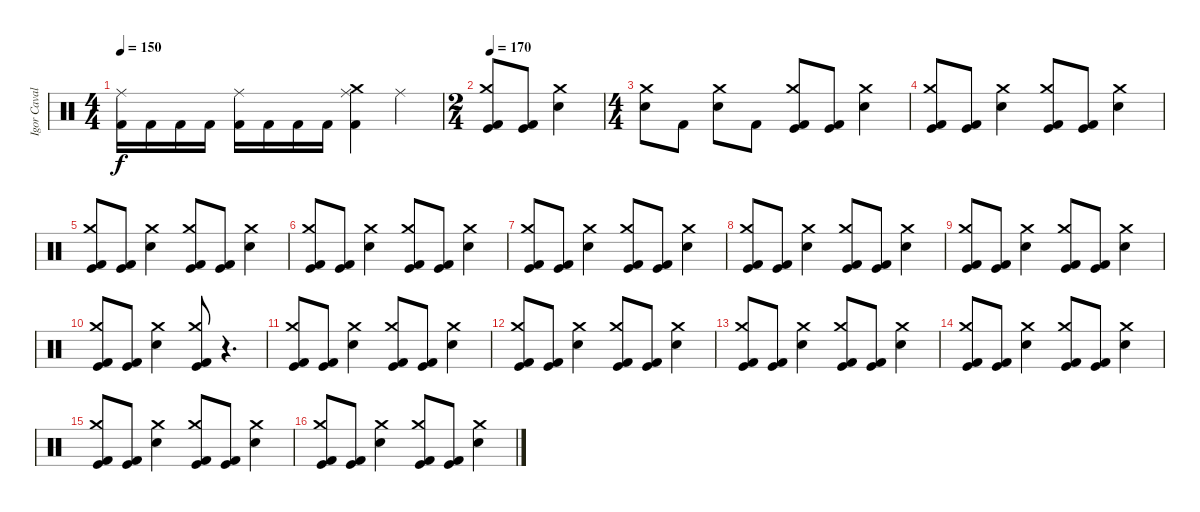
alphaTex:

\track ("Igor Cavalera" "Igor Caval") {instrument percussion}
\staff {score}
\articulation defaults
\ts (4 4)
\tempo 150
\clef neutral
\ks c
("Ride (middle)" "Kick (hit) 2").16{dy f} "Kick (hit) 2".16 "Kick (hit) 2".16 "Kick (hit) 2".16 ("Ride (middle)" "Kick (hit) 2").16 "Kick (hit) 2".16 "Kick (hit) 2".16 "Kick (hit) 2".16 ("Crash medium (hit)" "Ride (middle)" "Kick (hit) 2").4 "Ride (middle)".4 |
\ts (2 4)
\tempo 170
("Crash medium (hit)" "Kick (hit)" "Kick (hit) 2").8 ("Kick (hit)" "Kick (hit) 2").8 ("Crash medium (hit)" "Snare (hit) 2").4 |
\ts (4 4)
("Crash medium (hit)" "Snare (hit) 2").8 "Kick (hit) 2".8 ("Crash medium (hit)" "Snare (hit) 2").8 "Kick (hit) 2".8 ("Crash medium (hit)" "Kick (hit)" "Kick (hit) 2").8 ("Kick (hit)" "Kick (hit) 2").8 ("Crash medium (hit)" "Snare (hit) 2").4 |
("Crash medium (hit)" "Kick (hit)" "Kick (hit) 2").8 ("Kick (hit)" "Kick (hit) 2").8 ("Crash medium (hit)" "Snare (hit) 2").4 ("Crash medium (hit)" "Kick (hit)" "Kick (hit) 2").8 ("Kick (hit)" "Kick (hit) 2").8 ("Crash medium (hit)" "Snare (hit) 2").4 |
("Crash medium (hit)" "Kick (hit)" "Kick (hit) 2").8 ("Kick (hit)" "Kick (hit) 2").8 ("Crash medium (hit)" "Snare (hit) 2").4 ("Crash medium (hit)" "Kick (hit)" "Kick (hit) 2").8 ("Kick (hit)" "Kick (hit) 2").8 ("Crash medium (hit)" "Snare (hit) 2").4 |
("Crash medium (hit)" "Kick (hit)" "Kick (hit) 2").8 ("Kick (hit)" "Kick (hit) 2").8 ("Crash medium (hit)" "Snare (hit) 2").4 ("Crash medium (hit)" "Kick (hit)" "Kick (hit) 2").8 ("Kick (hit)" "Kick (hit) 2").8 ("Crash medium (hit)" "Snare (hit) 2").4 |
("Crash medium (hit)" "Kick (hit)" "Kick (hit) 2").8 ("Kick (hit)" "Kick (hit) 2").8 ("Crash medium (hit)" "Snare (hit) 2").4 ("Crash medium (hit)" "Kick (hit)" "Kick (hit) 2").8 ("Kick (hit)" "Kick (hit) 2").8 ("Crash medium (hit)" "Snare (hit) 2").4 |
("Crash medium (hit)" "Kick (hit)" "Kick (hit) 2").8 ("Kick (hit)" "Kick (hit) 2").8 ("Crash medium (hit)" "Snare (hit) 2").4 ("Crash medium (hit)" "Kick (hit)" "Kick (hit) 2").8 ("Kick (hit)" "Kick (hit) 2").8 ("Crash medium (hit)" "Snare (hit) 2").4 |
("Crash medium (hit)" "Kick (hit)" "Kick (hit) 2").8 ("Kick (hit)" "Kick (hit) 2").8 ("Crash medium (hit)" "Snare (hit) 2").4 ("Crash medium (hit)" "Kick (hit)" "Kick (hit) 2").8 ("Kick (hit)" "Kick (hit) 2").8 ("Crash medium (hit)" "Snare (hit) 2").4 |
("Crash medium (hit)" "Kick (hit)" "Kick (hit) 2").8 ("Kick (hit)" "Kick (hit) 2").8 ("Crash medium (hit)" "Snare (hit) 2").4 ("Crash medium (hit)" "Kick (hit)" "Kick (hit) 2").8 r.4{d} |
("Crash medium (hit)" "Kick (hit)" "Kick (hit) 2").8 ("Kick (hit)" "Kick (hit) 2").8 ("Crash medium (hit)" "Snare (hit) 2").4 ("Crash medium (hit)" "Kick (hit)" "Kick (hit) 2").8 ("Kick (hit)" "Kick (hit) 2").8 ("Crash medium (hit)" "Snare (hit) 2").4 |
("Crash medium (hit)" "Kick (hit)" "Kick (hit) 2").8 ("Kick (hit)" "Kick (hit) 2").8 ("Crash medium (hit)" "Snare (hit) 2").4 ("Crash medium (hit)" "Kick (hit)" "Kick (hit) 2").8 ("Kick (hit)" "Kick (hit) 2").8 ("Crash medium (hit)" "Snare (hit) 2").4 |
("Crash medium (hit)" "Kick (hit)" "Kick (hit) 2").8 ("Kick (hit)" "Kick (hit) 2").8 ("Crash medium (hit)" "Snare (hit) 2").4 ("Crash medium (hit)" "Kick (hit)" "Kick (hit) 2").8 ("Kick (hit)" "Kick (hit) 2").8 ("Crash medium (hit)" "Snare (hit) 2").4 |
("Crash medium (hit)" "Kick (hit)" "Kick (hit) 2").8 ("Kick (hit)" "Kick (hit) 2").8 ("Crash medium (hit)" "Snare (hit) 2").4 ("Crash medium (hit)" "Kick (hit)" "Kick (hit) 2").8 ("Kick (hit)" "Kick (hit) 2").8 ("Crash medium (hit)" "Snare (hit) 2").4 |
("Crash medium (hit)" "Kick (hit)" "Kick (hit) 2").8 ("Kick (hit)" "Kick (hit) 2").8 ("Crash medium (hit)" "Snare (hit) 2").4 ("Crash medium (hit)" "Kick (hit)" "Kick (hit) 2").8 ("Kick (hit)" "Kick (hit) 2").8 ("Crash medium (hit)" "Snare (hit) 2").4 |
("Crash medium (hit)" "Kick (hit)" "Kick (hit) 2").8 ("Kick (hit)" "Kick (hit) 2").8 ("Crash medium (hit)" "Snare (hit) 2").4 ("Crash medium (hit)" "Kick (hit)" "Kick (hit) 2").8 ("Kick (hit)" "Kick (hit) 2").8 ("Crash medium (hit)" "Snare (hit) 2").4
